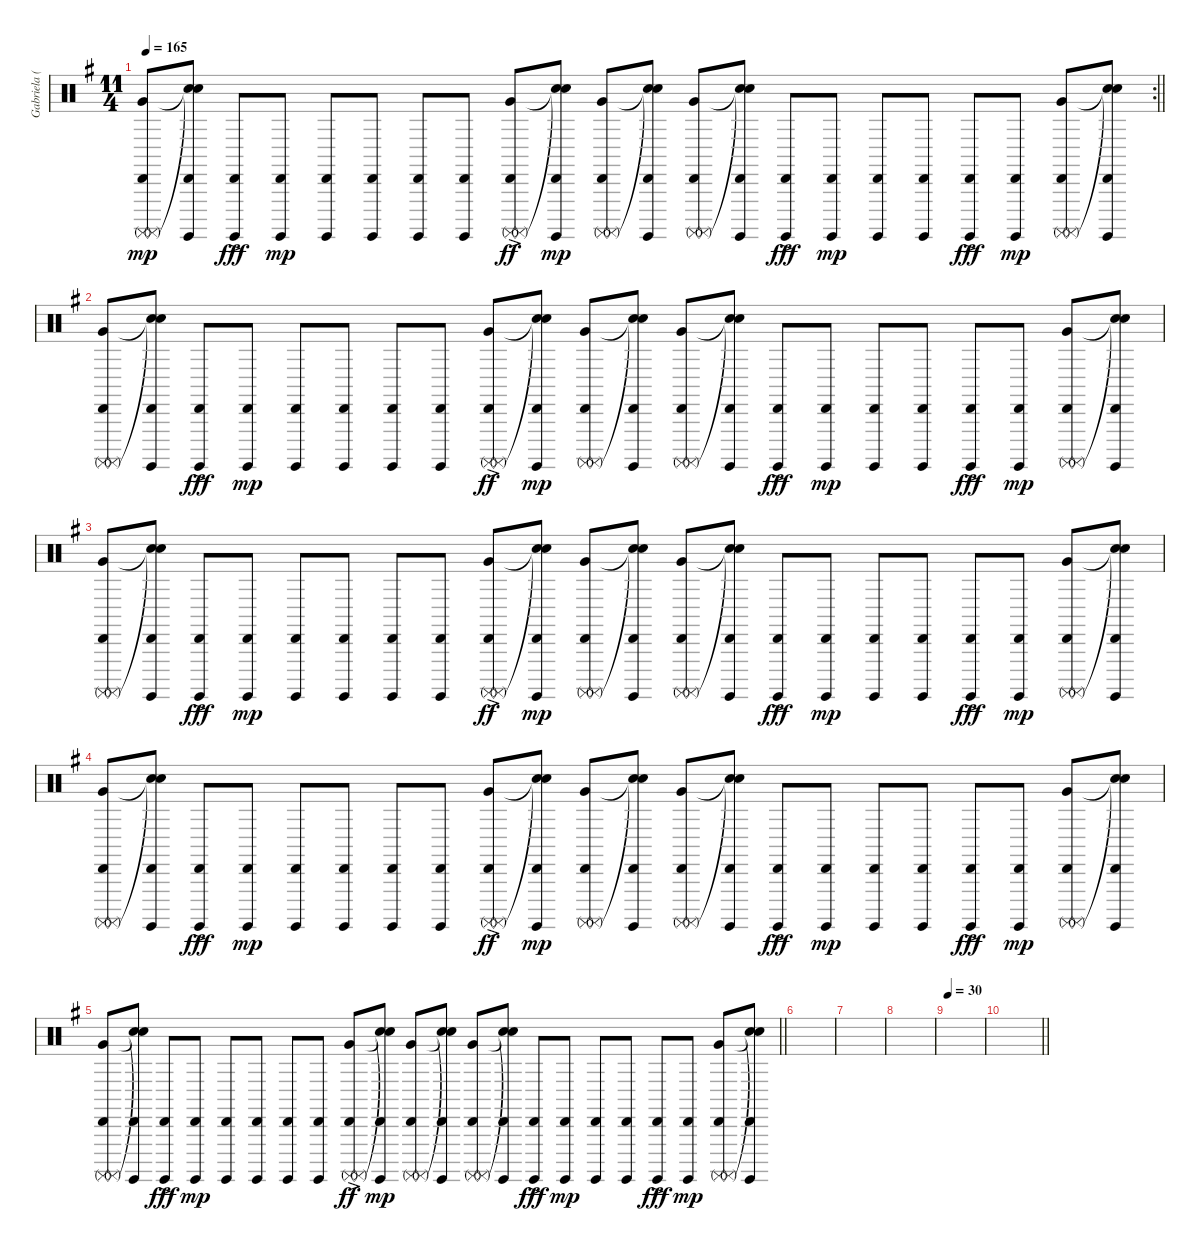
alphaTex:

\track ("Gabriela (Guitar Percussion)" "Gabriela (") {instrument percussion}
\staff {score}
\articulation defaults
\rc 2
\ts (11 4)
\tempo 165
\clef neutral
\barLineRight lightlight
\ks g
("Very Low Tom (hit)" "Surdo (mute)" "Surdo (mute)" "Cabasa (hit)").8{dy mp} ("Snare (hit)"{t} "Snare (hit)"{t} "Surdo (hit)" "Cabasa (hit)").8 ("Surdo (hit)" "Cabasa (hit)"{ac}).8{dy fff} ("Surdo (hit)" "Cabasa (hit)").8{dy mp} ("Surdo (hit)" "Cabasa (hit)").8 ("Surdo (hit)" "Cabasa (hit)").8 ("Surdo (hit)" "Cabasa (hit)").8 ("Surdo (hit)" "Cabasa (hit)").8 ("Very Low Tom (hit)" "Surdo (mute)" "Surdo (mute)" "Cabasa (hit)"{ac}).8{dy ff} ("Snare (hit)"{t} "Snare (hit)"{t} "Surdo (hit)" "Cabasa (hit)").8{dy mp} ("Very Low Tom (hit)" "Surdo (mute)" "Surdo (mute)" "Cabasa (hit)").8 ("Snare (hit)"{t} "Snare (hit)"{t} "Surdo (hit)" "Cabasa (hit)").8 ("Very Low Tom (hit)" "Surdo (mute)" "Surdo (mute)" "Cabasa (hit)").8 ("Snare (hit)"{t} "Snare (hit)"{t} "Surdo (hit)" "Cabasa (hit)").8 ("Surdo (hit)" "Cabasa (hit)"{ac}).8{dy fff} ("Surdo (hit)" "Cabasa (hit)").8{dy mp} ("Surdo (hit)" "Cabasa (hit)").8 ("Surdo (hit)" "Cabasa (hit)").8 ("Surdo (hit)" "Cabasa (hit)"{ac}).8{dy fff} ("Surdo (hit)" "Cabasa (hit)").8{dy mp} ("Very Low Tom (hit)" "Surdo (mute)" "Surdo (mute)" "Cabasa (hit)").8 ("Snare (hit)"{t} "Snare (hit)"{t} "Surdo (hit)" "Cabasa (hit)").8 |
("Very Low Tom (hit)" "Surdo (mute)" "Surdo (mute)" "Cabasa (hit)").8{volume 7} ("Snare (hit)"{t} "Snare (hit)"{t} "Surdo (hit)" "Cabasa (hit)").8 ("Surdo (hit)" "Cabasa (hit)"{ac}).8{dy fff} ("Surdo (hit)" "Cabasa (hit)").8{dy mp} ("Surdo (hit)" "Cabasa (hit)").8 ("Surdo (hit)" "Cabasa (hit)").8 ("Surdo (hit)" "Cabasa (hit)").8 ("Surdo (hit)" "Cabasa (hit)").8 ("Very Low Tom (hit)" "Surdo (mute)" "Surdo (mute)" "Cabasa (hit)"{ac}).8{dy ff} ("Snare (hit)"{t} "Snare (hit)"{t} "Surdo (hit)" "Cabasa (hit)").8{dy mp} ("Very Low Tom (hit)" "Surdo (mute)" "Surdo (mute)" "Cabasa (hit)").8 ("Snare (hit)"{t} "Snare (hit)"{t} "Surdo (hit)" "Cabasa (hit)").8 ("Very Low Tom (hit)" "Surdo (mute)" "Surdo (mute)" "Cabasa (hit)").8 ("Snare (hit)"{t} "Snare (hit)"{t} "Surdo (hit)" "Cabasa (hit)").8 ("Surdo (hit)" "Cabasa (hit)"{ac}).8{dy fff} ("Surdo (hit)" "Cabasa (hit)").8{dy mp} ("Surdo (hit)" "Cabasa (hit)").8 ("Surdo (hit)" "Cabasa (hit)").8 ("Surdo (hit)" "Cabasa (hit)"{ac}).8{dy fff} ("Surdo (hit)" "Cabasa (hit)").8{dy mp} ("Very Low Tom (hit)" "Surdo (mute)" "Surdo (mute)" "Cabasa (hit)").8 ("Snare (hit)"{t} "Snare (hit)"{t} "Surdo (hit)" "Cabasa (hit)").8 |
("Very Low Tom (hit)" "Surdo (mute)" "Surdo (mute)" "Cabasa (hit)").8 ("Snare (hit)"{t} "Snare (hit)"{t} "Surdo (hit)" "Cabasa (hit)").8 ("Surdo (hit)" "Cabasa (hit)"{ac}).8{dy fff} ("Surdo (hit)" "Cabasa (hit)").8{dy mp} ("Surdo (hit)" "Cabasa (hit)").8 ("Surdo (hit)" "Cabasa (hit)").8 ("Surdo (hit)" "Cabasa (hit)").8 ("Surdo (hit)" "Cabasa (hit)").8 ("Very Low Tom (hit)" "Surdo (mute)" "Surdo (mute)" "Cabasa (hit)"{ac}).8{dy ff} ("Snare (hit)"{t} "Snare (hit)"{t} "Surdo (hit)" "Cabasa (hit)").8{dy mp} ("Very Low Tom (hit)" "Surdo (mute)" "Surdo (mute)" "Cabasa (hit)").8 ("Snare (hit)"{t} "Snare (hit)"{t} "Surdo (hit)" "Cabasa (hit)").8{volume 0} ("Very Low Tom (hit)" "Surdo (mute)" "Surdo (mute)" "Cabasa (hit)").8 ("Snare (hit)"{t} "Snare (hit)"{t} "Surdo (hit)" "Cabasa (hit)").8 ("Surdo (hit)" "Cabasa (hit)"{ac}).8{dy fff} ("Surdo (hit)" "Cabasa (hit)").8{dy mp} ("Surdo (hit)" "Cabasa (hit)").8 ("Surdo (hit)" "Cabasa (hit)").8 ("Surdo (hit)" "Cabasa (hit)"{ac}).8{dy fff} ("Surdo (hit)" "Cabasa (hit)").8{dy mp} ("Very Low Tom (hit)" "Surdo (mute)" "Surdo (mute)" "Cabasa (hit)").8 ("Snare (hit)"{t} "Snare (hit)"{t} "Surdo (hit)" "Cabasa (hit)").8 |
("Very Low Tom (hit)" "Surdo (mute)" "Surdo (mute)" "Cabasa (hit)").8 ("Snare (hit)"{t} "Snare (hit)"{t} "Surdo (hit)" "Cabasa (hit)").8 ("Surdo (hit)" "Cabasa (hit)"{ac}).8{dy fff} ("Surdo (hit)" "Cabasa (hit)").8{dy mp} ("Surdo (hit)" "Cabasa (hit)").8 ("Surdo (hit)" "Cabasa (hit)").8 ("Surdo (hit)" "Cabasa (hit)").8 ("Surdo (hit)" "Cabasa (hit)").8 ("Very Low Tom (hit)" "Surdo (mute)" "Surdo (mute)" "Cabasa (hit)"{ac}).8{dy ff} ("Snare (hit)"{t} "Snare (hit)"{t} "Surdo (hit)" "Cabasa (hit)").8{dy mp} ("Very Low Tom (hit)" "Surdo (mute)" "Surdo (mute)" "Cabasa (hit)").8 ("Snare (hit)"{t} "Snare (hit)"{t} "Surdo (hit)" "Cabasa (hit)").8 ("Very Low Tom (hit)" "Surdo (mute)" "Surdo (mute)" "Cabasa (hit)").8 ("Snare (hit)"{t} "Snare (hit)"{t} "Surdo (hit)" "Cabasa (hit)").8 ("Surdo (hit)" "Cabasa (hit)"{ac}).8{dy fff} ("Surdo (hit)" "Cabasa (hit)").8{dy mp} ("Surdo (hit)" "Cabasa (hit)").8 ("Surdo (hit)" "Cabasa (hit)").8 ("Surdo (hit)" "Cabasa (hit)"{ac}).8{dy fff} ("Surdo (hit)" "Cabasa (hit)").8{dy mp} ("Very Low Tom (hit)" "Surdo (mute)" "Surdo (mute)" "Cabasa (hit)").8 ("Snare (hit)"{t} "Snare (hit)"{t} "Surdo (hit)" "Cabasa (hit)").8 |
\barLineRight lightlight
("Very Low Tom (hit)" "Surdo (mute)" "Surdo (mute)" "Cabasa (hit)").8 ("Snare (hit)"{t} "Snare (hit)"{t} "Surdo (hit)" "Cabasa (hit)").8 ("Surdo (hit)" "Cabasa (hit)"{ac}).8{dy fff} ("Surdo (hit)" "Cabasa (hit)").8{dy mp} ("Surdo (hit)" "Cabasa (hit)").8 ("Surdo (hit)" "Cabasa (hit)").8 ("Surdo (hit)" "Cabasa (hit)").8 ("Surdo (hit)" "Cabasa (hit)").8 ("Very Low Tom (hit)" "Surdo (mute)" "Surdo (mute)" "Cabasa (hit)"{ac}).8{dy ff} ("Snare (hit)"{t} "Snare (hit)"{t} "Surdo (hit)" "Cabasa (hit)").8{dy mp} ("Very Low Tom (hit)" "Surdo (mute)" "Surdo (mute)" "Cabasa (hit)").8 ("Snare (hit)"{t} "Snare (hit)"{t} "Surdo (hit)" "Cabasa (hit)").8 ("Very Low Tom (hit)" "Surdo (mute)" "Surdo (mute)" "Cabasa (hit)").8 ("Snare (hit)"{t} "Snare (hit)"{t} "Surdo (hit)" "Cabasa (hit)").8 ("Surdo (hit)" "Cabasa (hit)"{ac}).8{dy fff} ("Surdo (hit)" "Cabasa (hit)").8{dy mp} ("Surdo (hit)" "Cabasa (hit)").8 ("Surdo (hit)" "Cabasa (hit)").8 ("Surdo (hit)" "Cabasa (hit)"{ac}).8{dy fff} ("Surdo (hit)" "Cabasa (hit)").8{dy mp} ("Very Low Tom (hit)" "Surdo (mute)" "Surdo (mute)" "Cabasa (hit)").8 ("Snare (hit)"{t} "Snare (hit)"{t} "Surdo (hit)" "Cabasa (hit)").8 |
|
|
|
\tempo 30
|
\barLineRight lightlight
